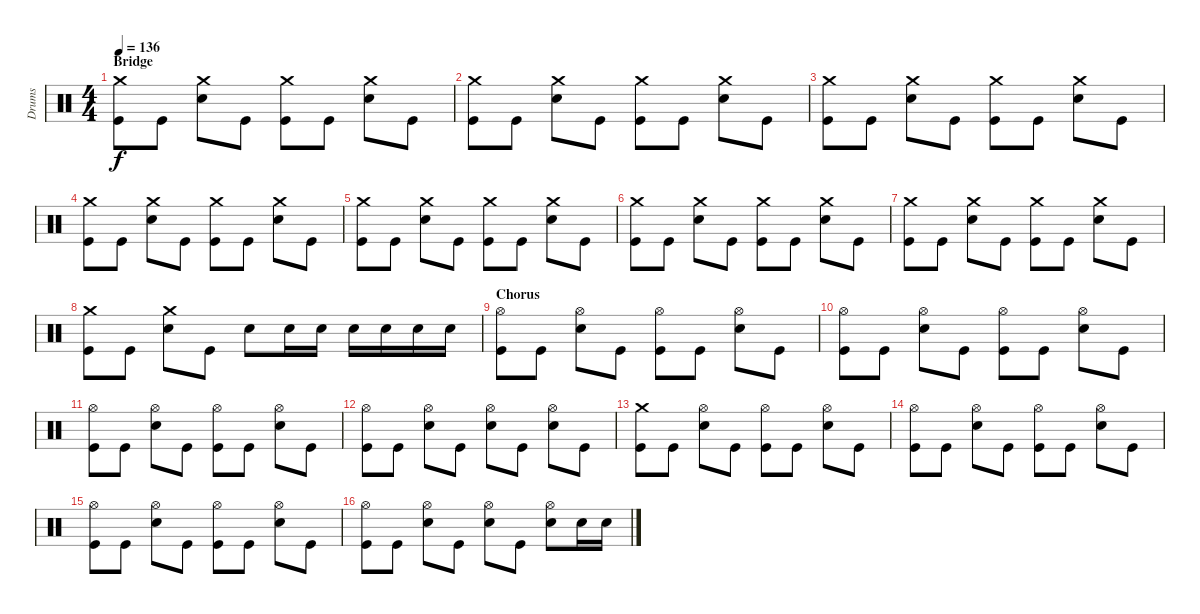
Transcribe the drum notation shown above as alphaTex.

\track ("Drums" "Drums") {instrument percussion}
\staff {score}
\articulation defaults
\ts (4 4)
\section ("" "Bridge")
\tempo 136
\clef neutral
\ks c
("Crash medium (hit)" "Kick (hit)").8{dy f} "Kick (hit)".8 ("Crash medium (hit)" "Snare (hit) 2").8 "Kick (hit)".8 ("Crash medium (hit)" "Kick (hit)").8 "Kick (hit)".8 ("Crash medium (hit)" "Snare (hit) 2").8 "Kick (hit)".8 |
("Crash medium (hit)" "Kick (hit)").8 "Kick (hit)".8 ("Crash medium (hit)" "Snare (hit) 2").8 "Kick (hit)".8 ("Crash medium (hit)" "Kick (hit)").8 "Kick (hit)".8 ("Crash medium (hit)" "Snare (hit) 2").8 "Kick (hit)".8 |
("Crash medium (hit)" "Kick (hit)").8 "Kick (hit)".8 ("Crash medium (hit)" "Snare (hit) 2").8 "Kick (hit)".8 ("Crash medium (hit)" "Kick (hit)").8 "Kick (hit)".8 ("Crash medium (hit)" "Snare (hit) 2").8 "Kick (hit)".8 |
("Crash medium (hit)" "Kick (hit)").8 "Kick (hit)".8 ("Crash medium (hit)" "Snare (hit) 2").8 "Kick (hit)".8 ("Crash medium (hit)" "Kick (hit)").8 "Kick (hit)".8 ("Crash medium (hit)" "Snare (hit) 2").8 "Kick (hit)".8 |
("Crash medium (hit)" "Kick (hit)").8 "Kick (hit)".8 ("Crash medium (hit)" "Snare (hit) 2").8 "Kick (hit)".8 ("Crash medium (hit)" "Kick (hit)").8 "Kick (hit)".8 ("Crash medium (hit)" "Snare (hit) 2").8 "Kick (hit)".8 |
("Crash medium (hit)" "Kick (hit)").8 "Kick (hit)".8 ("Crash medium (hit)" "Snare (hit) 2").8 "Kick (hit)".8 ("Crash medium (hit)" "Kick (hit)").8 "Kick (hit)".8 ("Crash medium (hit)" "Snare (hit) 2").8 "Kick (hit)".8 |
("Crash medium (hit)" "Kick (hit)").8 "Kick (hit)".8 ("Crash medium (hit)" "Snare (hit) 2").8 "Kick (hit)".8 ("Crash medium (hit)" "Kick (hit)").8 "Kick (hit)".8 ("Crash medium (hit)" "Snare (hit) 2").8 "Kick (hit)".8 |
("Crash medium (hit)" "Kick (hit)").8 "Kick (hit)".8 ("Crash medium (hit)" "Snare (hit) 2").8 "Kick (hit)".8 "Snare (hit) 2".8 "Snare (hit) 2".16 "Snare (hit) 2".16 "Snare (hit) 2".16 "Snare (hit) 2".16 "Snare (hit) 2".16 "Snare (hit) 2".16 |
\section ("" "Chorus")
("Hi-Hat (open)" "Kick (hit)").8 "Kick (hit)".8 ("Hi-Hat (open)" "Snare (hit) 2").8 "Kick (hit)".8 ("Hi-Hat (open)" "Kick (hit)").8 "Kick (hit)".8 ("Hi-Hat (open)" "Snare (hit) 2").8 "Kick (hit)".8 |
("Hi-Hat (open)" "Kick (hit)").8 "Kick (hit)".8 ("Hi-Hat (open)" "Snare (hit) 2").8 "Kick (hit)".8 ("Hi-Hat (open)" "Kick (hit)").8 "Kick (hit)".8 ("Hi-Hat (open)" "Snare (hit) 2").8 "Kick (hit)".8 |
("Hi-Hat (open)" "Kick (hit)").8 "Kick (hit)".8 ("Hi-Hat (open)" "Snare (hit) 2").8 "Kick (hit)".8 ("Hi-Hat (open)" "Kick (hit)").8 "Kick (hit)".8 ("Hi-Hat (open)" "Snare (hit) 2").8 "Kick (hit)".8 |
("Hi-Hat (open)" "Kick (hit)").8 "Kick (hit)".8 ("Hi-Hat (open)" "Snare (hit) 2").8 "Kick (hit)".8 ("Hi-Hat (open)" "Snare (hit) 2").8 "Kick (hit)".8 ("Hi-Hat (open)" "Snare (hit) 2").8 "Kick (hit)".8 |
("Crash medium (hit)" "Kick (hit)").8 "Kick (hit)".8 ("Hi-Hat (open)" "Snare (hit) 2").8 "Kick (hit)".8 ("Hi-Hat (open)" "Kick (hit)").8 "Kick (hit)".8 ("Hi-Hat (open)" "Snare (hit) 2").8 "Kick (hit)".8 |
("Hi-Hat (open)" "Kick (hit)").8 "Kick (hit)".8 ("Hi-Hat (open)" "Snare (hit) 2").8 "Kick (hit)".8 ("Hi-Hat (open)" "Kick (hit)").8 "Kick (hit)".8 ("Hi-Hat (open)" "Snare (hit) 2").8 "Kick (hit)".8 |
("Hi-Hat (open)" "Kick (hit)").8 "Kick (hit)".8 ("Hi-Hat (open)" "Snare (hit) 2").8 "Kick (hit)".8 ("Hi-Hat (open)" "Kick (hit)").8 "Kick (hit)".8 ("Hi-Hat (open)" "Snare (hit) 2").8 "Kick (hit)".8 |
("Hi-Hat (open)" "Kick (hit)").8 "Kick (hit)".8 ("Hi-Hat (open)" "Snare (hit) 2").8 "Kick (hit)".8 ("Hi-Hat (open)" "Snare (hit) 2").8 "Kick (hit)".8 ("Hi-Hat (open)" "Snare (hit) 2").8 "Snare (hit) 2".16 "Snare (hit) 2".16
